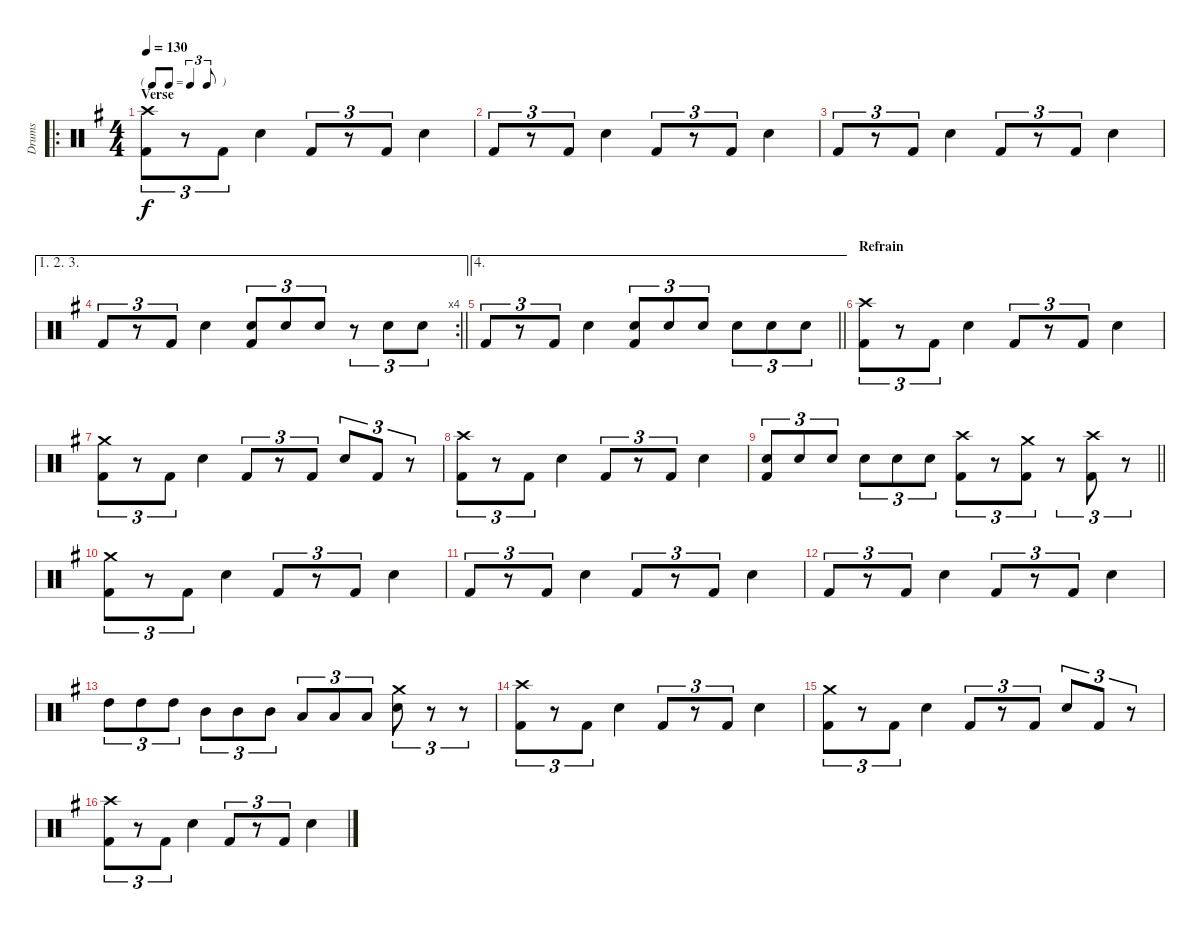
\track ("Drums" "Drums") {instrument percussion}
\staff {score}
\articulation defaults
\ro
\ts (4 4)
\tf triplet8th
\section ("" "Verse")
\tempo 130
\clef neutral
\ks eminor
("Kick (hit) 2" "Crash high (hit)").8{tu (3 2) dy f} r.8{tu (3 2)} "Kick (hit) 2".8{tu (3 2)} "Snare (hit) 2".4 "Kick (hit) 2".8{tu (3 2)} r.8{tu (3 2)} "Kick (hit) 2".8{tu (3 2)} "Snare (hit) 2".4 |
"Kick (hit) 2".8{tu (3 2)} r.8{tu (3 2)} "Kick (hit) 2".8{tu (3 2)} "Snare (hit) 2".4 "Kick (hit) 2".8{tu (3 2)} r.8{tu (3 2)} "Kick (hit) 2".8{tu (3 2)} "Snare (hit) 2".4 |
"Kick (hit) 2".8{tu (3 2)} r.8{tu (3 2)} "Kick (hit) 2".8{tu (3 2)} "Snare (hit) 2".4 "Kick (hit) 2".8{tu (3 2)} r.8{tu (3 2)} "Kick (hit) 2".8{tu (3 2)} "Snare (hit) 2".4 |
\ae (1 2 3)
\rc 4
\barLineRight lightlight "Kick (hit) 2".8{tu (3 2)}
r.8{tu (3 2)} "Kick (hit) 2".8{tu (3 2)} "Snare (hit) 2".4 ("Kick (hit) 2" "Snare (hit) 2").8{tu (3 2)} "Snare (hit) 2".8{tu (3 2)} "Snare (hit) 2".8{tu (3 2)} r.8{tu (3 2)} "Snare (hit) 2".8{tu (3 2)} "Snare (hit) 2".8{tu (3 2)} |
\ae 4
\barLineRight lightlight "Kick (hit) 2".8{tu (3 2)}
r.8{tu (3 2)} "Kick (hit) 2".8{tu (3 2)} "Snare (hit) 2".4 ("Kick (hit) 2" "Snare (hit) 2").8{tu (3 2)} "Snare (hit) 2".8{tu (3 2)} "Snare (hit) 2".8{tu (3 2)} "Snare (hit) 2".8{tu (3 2)} "Snare (hit) 2".8{tu (3 2)} "Snare (hit) 2".8{tu (3 2)} |
\section ("" "Refrain")
("Kick (hit) 2" "Crash high (hit)").8{tu (3 2)} r.8{tu (3 2)} "Kick (hit) 2".8{tu (3 2)} "Snare (hit) 2".4 "Kick (hit) 2".8{tu (3 2)} r.8{tu (3 2)} "Kick (hit) 2".8{tu (3 2)} "Snare (hit) 2".4 |
("Kick (hit) 2" "Crash medium (hit)").8{tu (3 2)} r.8{tu (3 2)} "Kick (hit) 2".8{tu (3 2)} "Snare (hit) 2".4 "Kick (hit) 2".8{tu (3 2)} r.8{tu (3 2)} "Kick (hit) 2".8{tu (3 2)} "Snare (hit) 2".8{tu (3 2)} "Kick (hit) 2".8{tu (3 2)} r.8{tu (3 2)} |
("Kick (hit) 2" "Crash high (hit)").8{tu (3 2)} r.8{tu (3 2)} "Kick (hit) 2".8{tu (3 2)} "Snare (hit) 2".4 "Kick (hit) 2".8{tu (3 2)} r.8{tu (3 2)} "Kick (hit) 2".8{tu (3 2)} "Snare (hit) 2".4 |
\barLineRight lightlight
("Kick (hit) 2" "Snare (hit) 2").8{tu (3 2)} "Snare (hit) 2".8{tu (3 2)} "Snare (hit) 2".8{tu (3 2)} "Snare (hit) 2".8{tu (3 2)} "Snare (hit) 2".8{tu (3 2)} "Snare (hit) 2".8{tu (3 2)} ("Kick (hit) 2" "Crash high (hit)").8{tu (3 2)} r.8{tu (3 2)} ("Kick (hit) 2" "Crash medium (hit)").8{tu (3 2)} r.8{tu (3 2)} ("Kick (hit) 2" "Crash high (hit)").8{tu (3 2)} r.8{tu (3 2)} |
("Kick (hit) 2" "Crash medium (hit)").8{tu (3 2)} r.8{tu (3 2)} "Kick (hit) 2".8{tu (3 2)} "Snare (hit) 2".4 "Kick (hit) 2".8{tu (3 2)} r.8{tu (3 2)} "Kick (hit) 2".8{tu (3 2)} "Snare (hit) 2".4 |
"Kick (hit) 2".8{tu (3 2)} r.8{tu (3 2)} "Kick (hit) 2".8{tu (3 2)} "Snare (hit) 2".4 "Kick (hit) 2".8{tu (3 2)} r.8{tu (3 2)} "Kick (hit) 2".8{tu (3 2)} "Snare (hit) 2".4 |
"Kick (hit) 2".8{tu (3 2)} r.8{tu (3 2)} "Kick (hit) 2".8{tu (3 2)} "Snare (hit) 2".4 "Kick (hit) 2".8{tu (3 2)} r.8{tu (3 2)} "Kick (hit) 2".8{tu (3 2)} "Snare (hit) 2".4 |
"High Tom (hit)".8{tu (3 2)} "High Tom (hit)".8{tu (3 2)} "High Tom (hit)".8{tu (3 2)} "Mid Tom (hit)".8{tu (3 2)} "Mid Tom (hit)".8{tu (3 2)} "Mid Tom (hit)".8{tu (3 2)} "Low Tom (hit)".8{tu (3 2)} "Low Tom (hit)".8{tu (3 2)} "Low Tom (hit)".8{tu (3 2)} ("Snare (hit) 2" "Crash medium (hit)").8{tu (3 2)} r.8{tu (3 2)} r.8{tu (3 2)} |
("Kick (hit) 2" "Crash high (hit)").8{tu (3 2)} r.8{tu (3 2)} "Kick (hit) 2".8{tu (3 2)} "Snare (hit) 2".4 "Kick (hit) 2".8{tu (3 2)} r.8{tu (3 2)} "Kick (hit) 2".8{tu (3 2)} "Snare (hit) 2".4 |
("Kick (hit) 2" "Crash medium (hit)").8{tu (3 2)} r.8{tu (3 2)} "Kick (hit) 2".8{tu (3 2)} "Snare (hit) 2".4 "Kick (hit) 2".8{tu (3 2)} r.8{tu (3 2)} "Kick (hit) 2".8{tu (3 2)} "Snare (hit) 2".8{tu (3 2)} "Kick (hit) 2".8{tu (3 2)} r.8{tu (3 2)} |
("Kick (hit) 2" "Crash high (hit)").8{tu (3 2)} r.8{tu (3 2)} "Kick (hit) 2".8{tu (3 2)} "Snare (hit) 2".4 "Kick (hit) 2".8{tu (3 2)} r.8{tu (3 2)} "Kick (hit) 2".8{tu (3 2)} "Snare (hit) 2".4
